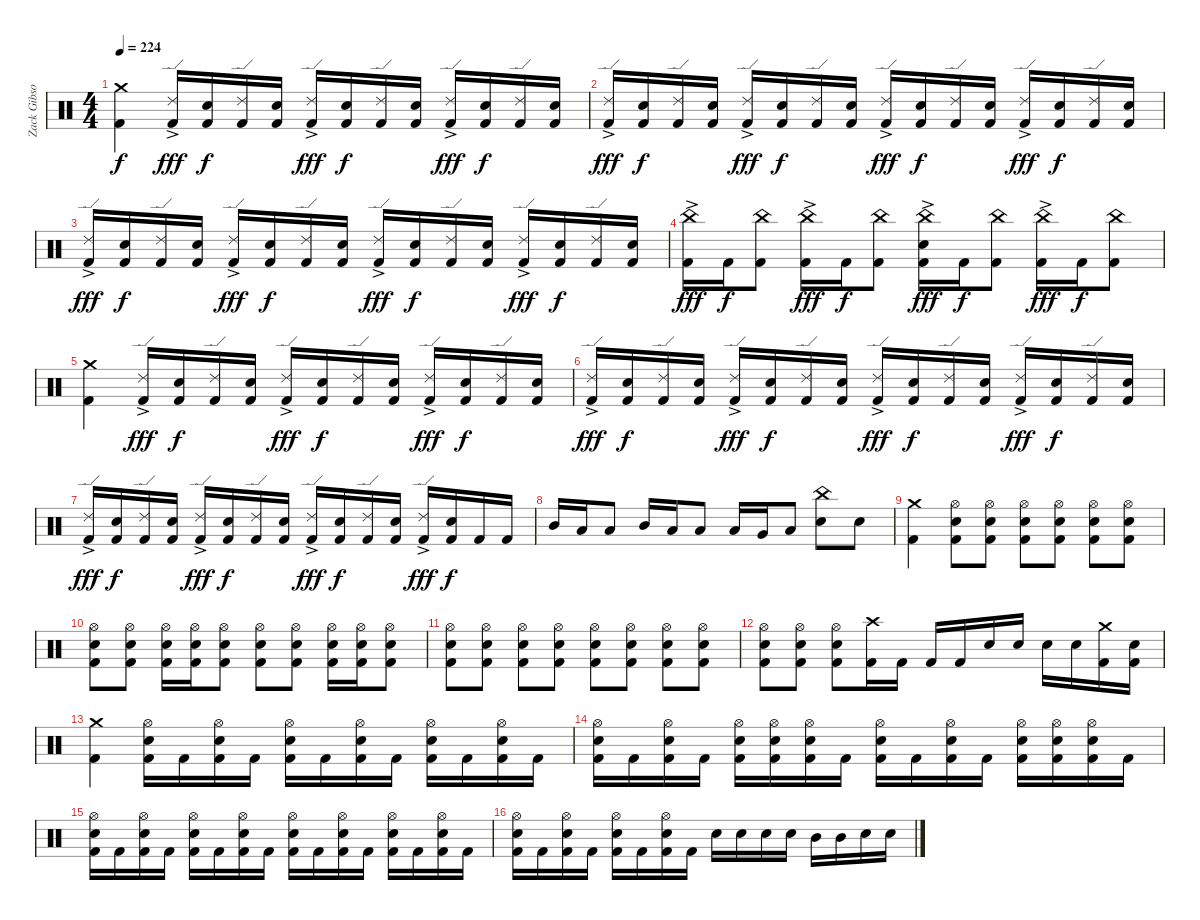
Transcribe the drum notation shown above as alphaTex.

\track ("Zack Gibson" "Zack Gibso") {instrument percussion}
\staff {score}
\articulation defaults
\ts (4 4)
\tempo 224
\clef neutral
\ks c
("Crash medium (hit)" "Kick (hit) 2").4{dy f} ("Ride (edge) 2"{ac} "Kick (hit) 2").16{dy fff} ("Kick (hit) 2" "Snare (hit) 2").16{dy f} ("Ride (edge) 2" "Kick (hit) 2").16 ("Kick (hit) 2" "Snare (hit) 2").16 ("Ride (edge) 2"{ac} "Kick (hit) 2").16{dy fff} ("Kick (hit) 2" "Snare (hit) 2").16{dy f} ("Ride (edge) 2" "Kick (hit) 2").16 ("Kick (hit) 2" "Snare (hit) 2").16 ("Ride (edge) 2"{ac} "Kick (hit) 2").16{dy fff} ("Kick (hit) 2" "Snare (hit) 2").16{dy f} ("Ride (edge) 2" "Kick (hit) 2").16 ("Kick (hit) 2" "Snare (hit) 2").16 |
("Ride (edge) 2"{ac} "Kick (hit) 2").16{dy fff} ("Kick (hit) 2" "Snare (hit) 2").16{dy f} ("Ride (edge) 2" "Kick (hit) 2").16 ("Kick (hit) 2" "Snare (hit) 2").16 ("Ride (edge) 2"{ac} "Kick (hit) 2").16{dy fff} ("Kick (hit) 2" "Snare (hit) 2").16{dy f} ("Ride (edge) 2" "Kick (hit) 2").16 ("Kick (hit) 2" "Snare (hit) 2").16 ("Ride (edge) 2"{ac} "Kick (hit) 2").16{dy fff} ("Kick (hit) 2" "Snare (hit) 2").16{dy f} ("Ride (edge) 2" "Kick (hit) 2").16 ("Kick (hit) 2" "Snare (hit) 2").16 ("Ride (edge) 2"{ac} "Kick (hit) 2").16{dy fff} ("Kick (hit) 2" "Snare (hit) 2").16{dy f} ("Ride (edge) 2" "Kick (hit) 2").16 ("Kick (hit) 2" "Snare (hit) 2").16 |
("Ride (edge) 2"{ac} "Kick (hit) 2").16{dy fff} ("Kick (hit) 2" "Snare (hit) 2").16{dy f} ("Ride (edge) 2" "Kick (hit) 2").16 ("Kick (hit) 2" "Snare (hit) 2").16 ("Ride (edge) 2"{ac} "Kick (hit) 2").16{dy fff} ("Kick (hit) 2" "Snare (hit) 2").16{dy f} ("Ride (edge) 2" "Kick (hit) 2").16 ("Kick (hit) 2" "Snare (hit) 2").16 ("Ride (edge) 2"{ac} "Kick (hit) 2").16{dy fff} ("Kick (hit) 2" "Snare (hit) 2").16{dy f} ("Ride (edge) 2" "Kick (hit) 2").16 ("Kick (hit) 2" "Snare (hit) 2").16 ("Ride (edge) 2"{ac} "Kick (hit) 2").16{dy fff} ("Kick (hit) 2" "Snare (hit) 2").16{dy f} ("Ride (edge) 2" "Kick (hit) 2").16 ("Kick (hit) 2" "Snare (hit) 2").16 |
("China (hit)"{ac} "Kick (hit) 2").16{dy fff} "Kick (hit) 2".16{dy f} ("China (hit)" "Kick (hit) 2").8 ("China (hit)"{ac} "Kick (hit) 2").16{dy fff} "Kick (hit) 2".16{dy f} ("China (hit)" "Kick (hit) 2").8 ("China (hit)"{ac} "Snare (hit) 2" "Kick (hit) 2").16{dy fff} "Kick (hit) 2".16{dy f} ("China (hit)" "Kick (hit) 2").8 ("China (hit)"{ac} "Kick (hit) 2").16{dy fff} "Kick (hit) 2".16{dy f} ("China (hit)" "Kick (hit) 2").8 |
("Crash medium (hit)" "Kick (hit) 2").4 ("Ride (edge) 2"{ac} "Kick (hit) 2").16{dy fff} ("Kick (hit) 2" "Snare (hit) 2").16{dy f} ("Ride (edge) 2" "Kick (hit) 2").16 ("Kick (hit) 2" "Snare (hit) 2").16 ("Ride (edge) 2"{ac} "Kick (hit) 2").16{dy fff} ("Kick (hit) 2" "Snare (hit) 2").16{dy f} ("Ride (edge) 2" "Kick (hit) 2").16 ("Kick (hit) 2" "Snare (hit) 2").16 ("Ride (edge) 2"{ac} "Kick (hit) 2").16{dy fff} ("Kick (hit) 2" "Snare (hit) 2").16{dy f} ("Ride (edge) 2" "Kick (hit) 2").16 ("Kick (hit) 2" "Snare (hit) 2").16 |
("Ride (edge) 2"{ac} "Kick (hit) 2").16{dy fff} ("Kick (hit) 2" "Snare (hit) 2").16{dy f} ("Ride (edge) 2" "Kick (hit) 2").16 ("Kick (hit) 2" "Snare (hit) 2").16 ("Ride (edge) 2"{ac} "Kick (hit) 2").16{dy fff} ("Kick (hit) 2" "Snare (hit) 2").16{dy f} ("Ride (edge) 2" "Kick (hit) 2").16 ("Kick (hit) 2" "Snare (hit) 2").16 ("Ride (edge) 2"{ac} "Kick (hit) 2").16{dy fff} ("Kick (hit) 2" "Snare (hit) 2").16{dy f} ("Ride (edge) 2" "Kick (hit) 2").16 ("Kick (hit) 2" "Snare (hit) 2").16 ("Ride (edge) 2"{ac} "Kick (hit) 2").16{dy fff} ("Kick (hit) 2" "Snare (hit) 2").16{dy f} ("Ride (edge) 2" "Kick (hit) 2").16 ("Kick (hit) 2" "Snare (hit) 2").16 |
("Ride (edge) 2"{ac} "Kick (hit) 2").16{dy fff} ("Kick (hit) 2" "Snare (hit) 2").16{dy f} ("Ride (edge) 2" "Kick (hit) 2").16 ("Kick (hit) 2" "Snare (hit) 2").16 ("Ride (edge) 2"{ac} "Kick (hit) 2").16{dy fff} ("Kick (hit) 2" "Snare (hit) 2").16{dy f} ("Ride (edge) 2" "Kick (hit) 2").16 ("Kick (hit) 2" "Snare (hit) 2").16 ("Ride (edge) 2"{ac} "Kick (hit) 2").16{dy fff} ("Kick (hit) 2" "Snare (hit) 2").16{dy f} ("Ride (edge) 2" "Kick (hit) 2").16 ("Kick (hit) 2" "Snare (hit) 2").16 ("Ride (edge) 2"{ac} "Kick (hit) 2").16{dy fff} ("Kick (hit) 2" "Snare (hit) 2").16{dy f} "Kick (hit) 2".16 "Kick (hit) 2".16 |
"Mid Tom (hit)".16 "Low Tom (hit)".16 "Low Floor Tom (hit)".8 "Mid Tom (hit)".16 "Low Tom (hit)".16 "Low Floor Tom (hit)".8 "Low Tom (hit)".16 "Very Low Tom (hit)".16 "Low Floor Tom (hit)".8 ("China (hit)" "Snare (hit) 2").8 "Snare (hit) 2".8 |
("Crash medium (hit)" "Kick (hit) 2").4 ("Hi-Hat (open)" "Kick (hit) 2" "Snare (hit) 2").8 ("Hi-Hat (open)" "Kick (hit) 2" "Snare (hit) 2").8 ("Hi-Hat (open)" "Kick (hit) 2" "Snare (hit) 2").8 ("Hi-Hat (open)" "Kick (hit) 2" "Snare (hit) 2").8 ("Hi-Hat (open)" "Kick (hit) 2" "Snare (hit) 2").8 ("Hi-Hat (open)" "Kick (hit) 2" "Snare (hit) 2").8 |
("Hi-Hat (open)" "Kick (hit) 2" "Snare (hit) 2").8 ("Hi-Hat (open)" "Kick (hit) 2" "Snare (hit) 2").8 ("Hi-Hat (open)" "Kick (hit) 2" "Snare (hit) 2").16 ("Hi-Hat (open)" "Kick (hit) 2" "Snare (hit) 2").16 ("Hi-Hat (open)" "Kick (hit) 2" "Snare (hit) 2").8 ("Hi-Hat (open)" "Kick (hit) 2" "Snare (hit) 2").8 ("Hi-Hat (open)" "Kick (hit) 2" "Snare (hit) 2").8 ("Hi-Hat (open)" "Kick (hit) 2" "Snare (hit) 2").16 ("Hi-Hat (open)" "Kick (hit) 2" "Snare (hit) 2").16 ("Hi-Hat (open)" "Kick (hit) 2" "Snare (hit) 2").8 |
("Hi-Hat (open)" "Kick (hit) 2" "Snare (hit) 2").8 ("Hi-Hat (open)" "Kick (hit) 2" "Snare (hit) 2").8 ("Hi-Hat (open)" "Kick (hit) 2" "Snare (hit) 2").8 ("Hi-Hat (open)" "Kick (hit) 2" "Snare (hit) 2").8 ("Hi-Hat (open)" "Kick (hit) 2" "Snare (hit) 2").8 ("Hi-Hat (open)" "Kick (hit) 2" "Snare (hit) 2").8 ("Hi-Hat (open)" "Kick (hit) 2" "Snare (hit) 2").8 ("Hi-Hat (open)" "Kick (hit) 2" "Snare (hit) 2").8 |
("Hi-Hat (open)" "Kick (hit) 2" "Snare (hit) 2").8 ("Hi-Hat (open)" "Kick (hit) 2" "Snare (hit) 2").8 ("Hi-Hat (open)" "Kick (hit) 2" "Snare (hit) 2").8 ("Crash high (hit)" "Kick (hit) 2").16 "Kick (hit) 2".16 "Kick (hit) 2".16 "Kick (hit) 2".16 "Snare (hit) 2".16 "Snare (hit) 2".16 "Snare (hit) 2".16 "Snare (hit) 2".16 ("Crash medium (hit)" "Kick (hit) 2").16 ("Snare (hit) 2" "Kick (hit) 2").16 |
("Crash medium (hit)" "Kick (hit) 2").4 ("Hi-Hat (open)" "Kick (hit) 2" "Snare (hit) 2").16 "Kick (hit) 2".16 ("Hi-Hat (open)" "Kick (hit) 2" "Snare (hit) 2").16 "Kick (hit) 2".16 ("Hi-Hat (open)" "Kick (hit) 2" "Snare (hit) 2").16 "Kick (hit) 2".16 ("Hi-Hat (open)" "Kick (hit) 2" "Snare (hit) 2").16 "Kick (hit) 2".16 ("Hi-Hat (open)" "Kick (hit) 2" "Snare (hit) 2").16 "Kick (hit) 2".16 ("Hi-Hat (open)" "Kick (hit) 2" "Snare (hit) 2").16 "Kick (hit) 2".16 |
("Hi-Hat (open)" "Kick (hit) 2" "Snare (hit) 2").16 "Kick (hit) 2".16 ("Hi-Hat (open)" "Kick (hit) 2" "Snare (hit) 2").16 "Kick (hit) 2".16 ("Hi-Hat (open)" "Kick (hit) 2" "Snare (hit) 2").16 ("Hi-Hat (open)" "Snare (hit) 2" "Kick (hit) 2").16 ("Hi-Hat (open)" "Kick (hit) 2" "Snare (hit) 2").16 "Kick (hit) 2".16 ("Hi-Hat (open)" "Kick (hit) 2" "Snare (hit) 2").16 "Kick (hit) 2".16 ("Hi-Hat (open)" "Kick (hit) 2" "Snare (hit) 2").16 "Kick (hit) 2".16 ("Hi-Hat (open)" "Kick (hit) 2" "Snare (hit) 2").16 ("Hi-Hat (open)" "Snare (hit) 2" "Kick (hit) 2").16 ("Hi-Hat (open)" "Kick (hit) 2" "Snare (hit) 2").16 "Kick (hit) 2".16 |
("Hi-Hat (open)" "Kick (hit) 2" "Snare (hit) 2").16 "Kick (hit) 2".16 ("Hi-Hat (open)" "Kick (hit) 2" "Snare (hit) 2").16 "Kick (hit) 2".16 ("Hi-Hat (open)" "Kick (hit) 2" "Snare (hit) 2").16 "Kick (hit) 2".16 ("Hi-Hat (open)" "Kick (hit) 2" "Snare (hit) 2").16 "Kick (hit) 2".16 ("Hi-Hat (open)" "Kick (hit) 2" "Snare (hit) 2").16 "Kick (hit) 2".16 ("Hi-Hat (open)" "Kick (hit) 2" "Snare (hit) 2").16 "Kick (hit) 2".16 ("Hi-Hat (open)" "Kick (hit) 2" "Snare (hit) 2").16 "Kick (hit) 2".16 ("Hi-Hat (open)" "Kick (hit) 2" "Snare (hit) 2").16 "Kick (hit) 2".16 |
("Hi-Hat (open)" "Kick (hit) 2" "Snare (hit) 2").16 "Kick (hit) 2".16 ("Hi-Hat (open)" "Kick (hit) 2" "Snare (hit) 2").16 "Kick (hit) 2".16 ("Hi-Hat (open)" "Kick (hit) 2" "Snare (hit) 2").16 "Kick (hit) 2".16 ("Hi-Hat (open)" "Kick (hit) 2" "Snare (hit) 2").16 "Kick (hit) 2".16 "Snare (hit) 2".16 "Snare (hit) 2".16 "Snare (hit) 2".16 "Snare (hit) 2".16 "Mid Tom (hit)".16 "Mid Tom (hit)".16 "Snare (hit) 2".16 "Snare (hit) 2".16
